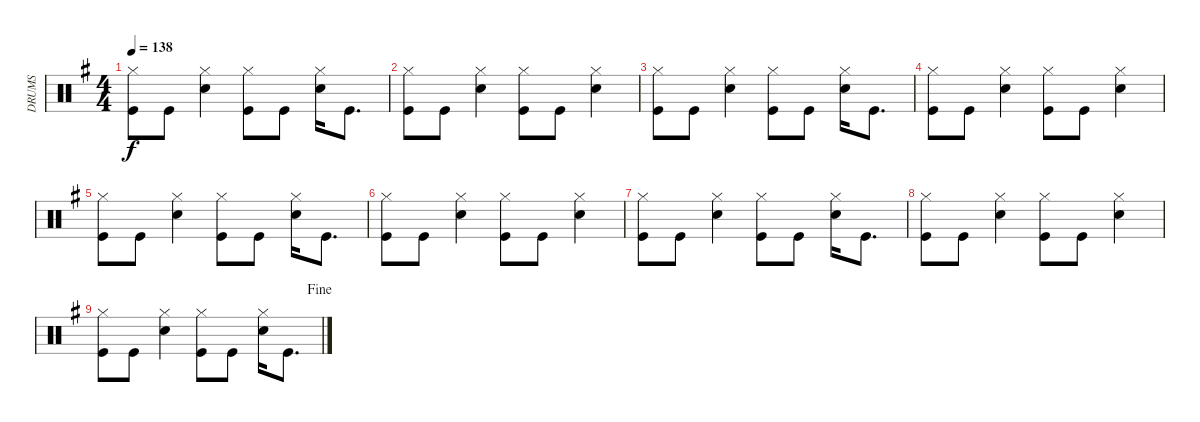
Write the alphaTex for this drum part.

\track ("DRUMS" "DRUMS") {instrument percussion}
\staff {score}
\articulation defaults
\ts (4 4)
\tempo 138
\clef neutral
\ks eminor
("Hi-Hat (closed)" "Kick (hit)").8{dy f} "Kick (hit)".8 ("Hi-Hat (closed)" "Snare (hit) 2").4 ("Hi-Hat (closed)" "Kick (hit)").8 "Kick (hit)".8 ("Hi-Hat (closed)" "Snare (hit) 2").16 "Kick (hit)".8{d} |
("Hi-Hat (closed)" "Kick (hit)").8 "Kick (hit)".8 ("Hi-Hat (closed)" "Snare (hit) 2").4 ("Hi-Hat (closed)" "Kick (hit)").8 "Kick (hit)".8 ("Hi-Hat (closed)" "Snare (hit) 2").4 |
("Hi-Hat (closed)" "Kick (hit)").8 "Kick (hit)".8 ("Hi-Hat (closed)" "Snare (hit) 2").4 ("Hi-Hat (closed)" "Kick (hit)").8 "Kick (hit)".8 ("Hi-Hat (closed)" "Snare (hit) 2").16 "Kick (hit)".8{d} |
("Hi-Hat (closed)" "Kick (hit)").8 "Kick (hit)".8 ("Hi-Hat (closed)" "Snare (hit) 2").4 ("Hi-Hat (closed)" "Kick (hit)").8 "Kick (hit)".8 ("Hi-Hat (closed)" "Snare (hit) 2").4 |
("Hi-Hat (closed)" "Kick (hit)").8 "Kick (hit)".8 ("Hi-Hat (closed)" "Snare (hit) 2").4 ("Hi-Hat (closed)" "Kick (hit)").8 "Kick (hit)".8 ("Hi-Hat (closed)" "Snare (hit) 2").16 "Kick (hit)".8{d} |
("Hi-Hat (closed)" "Kick (hit)").8 "Kick (hit)".8 ("Hi-Hat (closed)" "Snare (hit) 2").4 ("Hi-Hat (closed)" "Kick (hit)").8 "Kick (hit)".8 ("Hi-Hat (closed)" "Snare (hit) 2").4 |
("Hi-Hat (closed)" "Kick (hit)").8 "Kick (hit)".8 ("Hi-Hat (closed)" "Snare (hit) 2").4 ("Hi-Hat (closed)" "Kick (hit)").8 "Kick (hit)".8 ("Hi-Hat (closed)" "Snare (hit) 2").16 "Kick (hit)".8{d} |
("Hi-Hat (closed)" "Kick (hit)").8 "Kick (hit)".8 ("Hi-Hat (closed)" "Snare (hit) 2").4 ("Hi-Hat (closed)" "Kick (hit)").8 "Kick (hit)".8 ("Hi-Hat (closed)" "Snare (hit) 2").4 |
\jump fine
("Hi-Hat (closed)" "Kick (hit)").8 "Kick (hit)".8 ("Hi-Hat (closed)" "Snare (hit) 2").4 ("Hi-Hat (closed)" "Kick (hit)").8 "Kick (hit)".8 ("Hi-Hat (closed)" "Snare (hit) 2").16 "Kick (hit)".8{d}
